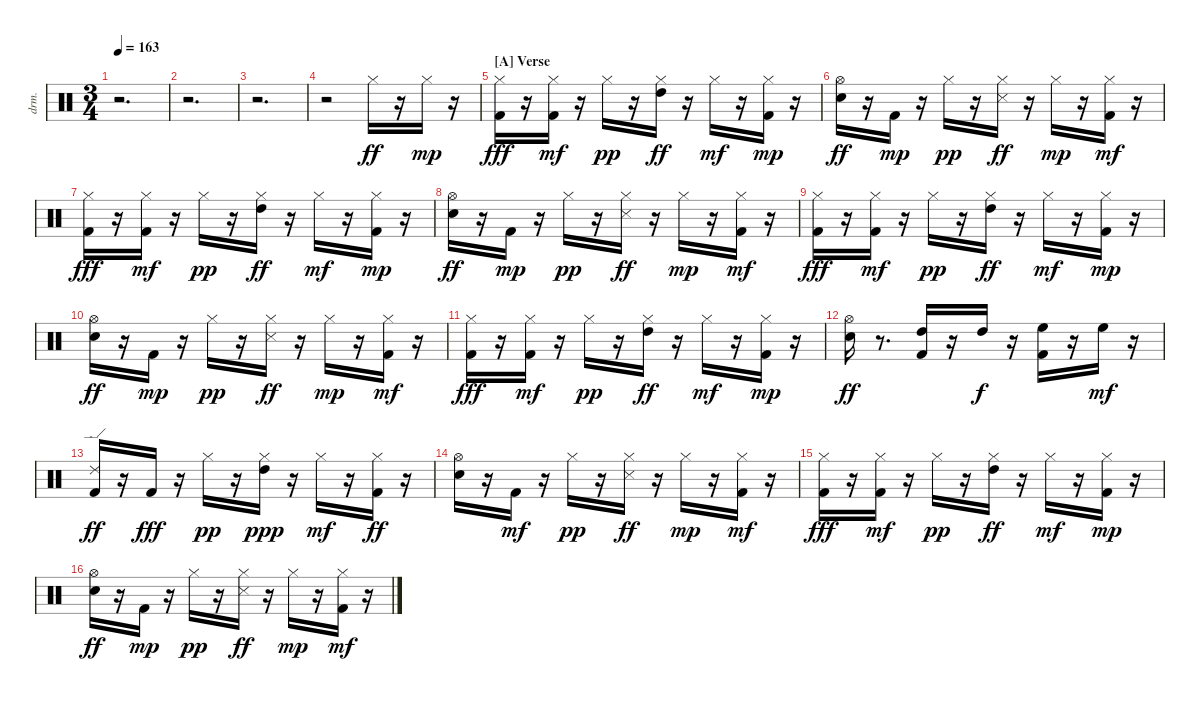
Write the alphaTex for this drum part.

\bracketExtendMode nobrackets
\track ("EZdrummer 3" "drm.") {instrument percussion}
\staff {score}
\articulation defaults
\ts (3 4)
\tempo 163
\clef neutral
\ks aminor
r.2{d dy ff} |
r.2{d} |
r.2{d} |
r.2 "Hi-Hat (closed)"{acc #}.16 r.16 "Hi-Hat (closed)"{acc #}.16{dy mp} r.16 |
\section ("A" "Verse")
("Kick (hit) 2" "Hi-Hat (closed)"{acc #}).16{dy fff} r.16 ("Kick (hit) 2" "Hi-Hat (closed)"{acc #}).16{dy mf} r.16 "Hi-Hat (closed)"{acc #}.16{dy pp} r.16 ("Hi-Hat (closed)"{acc #} "High Tom (hit)").16{dy ff} r.16 "Hi-Hat (closed)"{acc #}.16{dy mf} r.16 ("Kick (hit) 2" "Hi-Hat (closed)"{acc #}).16{dy mp} r.16 |
("Snare (hit) 2" "Hi-Hat (open)"{acc #}).16{dy ff} r.16 "Kick (hit) 2".16{dy mp} r.16 "Hi-Hat (closed)"{acc #}.16{dy pp} r.16 ("Snare (side stick) 3"{acc #} "Hi-Hat (closed)"{acc #}).16{dy ff} r.16 "Hi-Hat (closed)"{acc #}.16{dy mp} r.16 ("Kick (hit) 2" "Hi-Hat (closed)"{acc #}).16{dy mf} r.16 |
("Kick (hit) 2" "Hi-Hat (closed)"{acc #}).16{dy fff} r.16 ("Kick (hit) 2" "Hi-Hat (closed)"{acc #}).16{dy mf} r.16 "Hi-Hat (closed)"{acc #}.16{dy pp} r.16 ("Hi-Hat (closed)"{acc #} "High Tom (hit)").16{dy ff} r.16 "Hi-Hat (closed)"{acc #}.16{dy mf} r.16 ("Kick (hit) 2" "Hi-Hat (closed)"{acc #}).16{dy mp} r.16 |
("Snare (hit) 2" "Hi-Hat (open)"{acc #}).16{dy ff} r.16 "Kick (hit) 2".16{dy mp} r.16 "Hi-Hat (closed)"{acc #}.16{dy pp} r.16 ("Snare (side stick) 3"{acc #} "Hi-Hat (closed)"{acc #}).16{dy ff} r.16 "Hi-Hat (closed)"{acc #}.16{dy mp} r.16 ("Kick (hit) 2" "Hi-Hat (closed)"{acc #}).16{dy mf} r.16 |
("Kick (hit) 2" "Hi-Hat (closed)"{acc #}).16{dy fff} r.16 ("Kick (hit) 2" "Hi-Hat (closed)"{acc #}).16{dy mf} r.16 "Hi-Hat (closed)"{acc #}.16{dy pp} r.16 ("Hi-Hat (closed)"{acc #} "High Tom (hit)").16{dy ff} r.16 "Hi-Hat (closed)"{acc #}.16{dy mf} r.16 ("Kick (hit) 2" "Hi-Hat (closed)"{acc #}).16{dy mp} r.16 |
("Snare (hit) 2" "Hi-Hat (open)"{acc #}).16{dy ff} r.16 "Kick (hit) 2".16{dy mp} r.16 "Hi-Hat (closed)"{acc #}.16{dy pp} r.16 ("Snare (side stick) 3"{acc #} "Hi-Hat (closed)"{acc #}).16{dy ff} r.16 "Hi-Hat (closed)"{acc #}.16{dy mp} r.16 ("Kick (hit) 2" "Hi-Hat (closed)"{acc #}).16{dy mf} r.16 |
("Kick (hit) 2" "Hi-Hat (closed)"{acc #}).16{dy fff} r.16 ("Kick (hit) 2" "Hi-Hat (closed)"{acc #}).16{dy mf} r.16 "Hi-Hat (closed)"{acc #}.16{dy pp} r.16 ("Hi-Hat (closed)"{acc #} "High Tom (hit)").16{dy ff} r.16 "Hi-Hat (closed)"{acc #}.16{dy mf} r.16 ("Kick (hit) 2" "Hi-Hat (closed)"{acc #}).16{dy mp} r.16 |
("Snare (hit) 2" "Hi-Hat (open)"{acc #}).16{dy ff} r.8{d} ("Kick (hit) 2" "High Tom (hit)").16 r.16 "High Tom (hit)".16{dy f} r.16 ("Kick (hit) 2" "High Floor Tom (hit)").16 r.16 "High Floor Tom (hit)".16{dy mf} r.16 |
("Kick (hit) 2" "Ride (edge) 2").16{dy ff} r.16 "Kick (hit) 2".16{dy fff} r.16 "Hi-Hat (closed)"{acc #}.16{dy pp} r.16 ("Hi-Hat (closed)"{acc #} "High Tom (hit)").16{dy ppp} r.16 "Hi-Hat (closed)"{acc #}.16{dy mf} r.16 ("Kick (hit) 2" "Hi-Hat (closed)"{acc #}).16{dy ff} r.16 |
("Snare (hit) 2" "Hi-Hat (open)"{acc #}).16 r.16 "Kick (hit) 2".16{dy mf} r.16 "Hi-Hat (closed)"{acc #}.16{dy pp} r.16 ("Snare (side stick) 3"{acc #} "Hi-Hat (closed)"{acc #}).16{dy ff} r.16 "Hi-Hat (closed)"{acc #}.16{dy mp} r.16 ("Kick (hit) 2" "Hi-Hat (closed)"{acc #}).16{dy mf} r.16 |
("Kick (hit) 2" "Hi-Hat (closed)"{acc #}).16{dy fff} r.16 ("Kick (hit) 2" "Hi-Hat (closed)"{acc #}).16{dy mf} r.16 "Hi-Hat (closed)"{acc #}.16{dy pp} r.16 ("Hi-Hat (closed)"{acc #} "High Tom (hit)").16{dy ff} r.16 "Hi-Hat (closed)"{acc #}.16{dy mf} r.16 ("Kick (hit) 2" "Hi-Hat (closed)"{acc #}).16{dy mp} r.16 |
("Snare (hit) 2" "Hi-Hat (open)"{acc #}).16{dy ff} r.16 "Kick (hit) 2".16{dy mp} r.16 "Hi-Hat (closed)"{acc #}.16{dy pp} r.16 ("Snare (side stick) 3"{acc #} "Hi-Hat (closed)"{acc #}).16{dy ff} r.16 "Hi-Hat (closed)"{acc #}.16{dy mp} r.16 ("Kick (hit) 2" "Hi-Hat (closed)"{acc #}).16{dy mf} r.16
